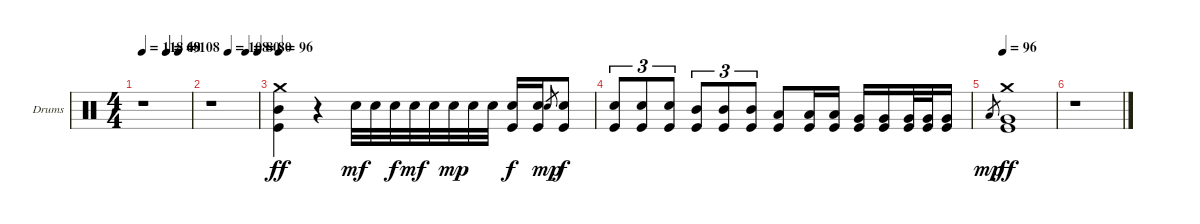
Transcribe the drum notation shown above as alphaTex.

\bracketExtendMode groupsimilarinstruments
\firstSystemTrackNameOrientation horizontal
\otherSystemsTrackNameOrientation horizontal
\track ("Drumkit" "Drums") {instrument percussion}
\staff {score}
\articulation defaults
\ts (4 4)
\tempo 118
\tempo (69 0.4999)
\tempo (48 0.5)
\tempo (108 0.75)
\clef neutral
\ks c
r.1{dy f} |
\tempo (108 0.375)
\tempo (80 0.75)
\tempo (80 1)
r.1 |
\tempo 96
("Crash medium (hit)" "Mid Tom (hit)" "Kick (hit)").4{dy ff} r.4 "Snare (hit) 2".32{dy mf} "Snare (hit) 2".32 "Snare (hit) 2".32{dy f} "Snare (hit) 2".32{dy mf} "Snare (hit) 2".32 "Snare (hit) 2".32{dy mp} "Snare (hit) 2".32 "Snare (hit) 2".32 ("Snare (hit) 2" "Kick (hit)").16{dy f} ("Snare (hit) 2" "Kick (hit)").16 "Snare (hit) 2".8{gr dy mp} ("Snare (hit) 2" "Kick (hit)").8{dy f} |
("Snare (hit) 2" "Kick (hit)").8{tu (3 2)} ("Snare (hit) 2" "Kick (hit)").8{tu (3 2)} ("Snare (hit) 2" "Kick (hit)").8{tu (3 2)} ("Mid Tom (hit)" "Kick (hit)").8{tu (3 2)} ("Mid Tom (hit)" "Kick (hit)").8{tu (3 2)} ("Mid Tom (hit)" "Kick (hit)").8{tu (3 2)} ("Low Tom (hit)" "Kick (hit)").8 ("Low Tom (hit)" "Kick (hit)").16 ("Low Tom (hit)" "Kick (hit)").16 ("Very Low Tom (hit)" "Kick (hit)").16 ("Very Low Tom (hit)" "Kick (hit)").16 ("Very Low Tom (hit)" "Kick (hit)").32 ("Very Low Tom (hit)" "Kick (hit)").32 ("Very Low Tom (hit)" "Kick (hit)").16 |
\tempo (96 0.21875)
"Low Tom (hit)".8{gr dy mp} ("Crash medium (hit)" "Very Low Tom (hit)" "Kick (hit)").1{dy ff} |
r.1
